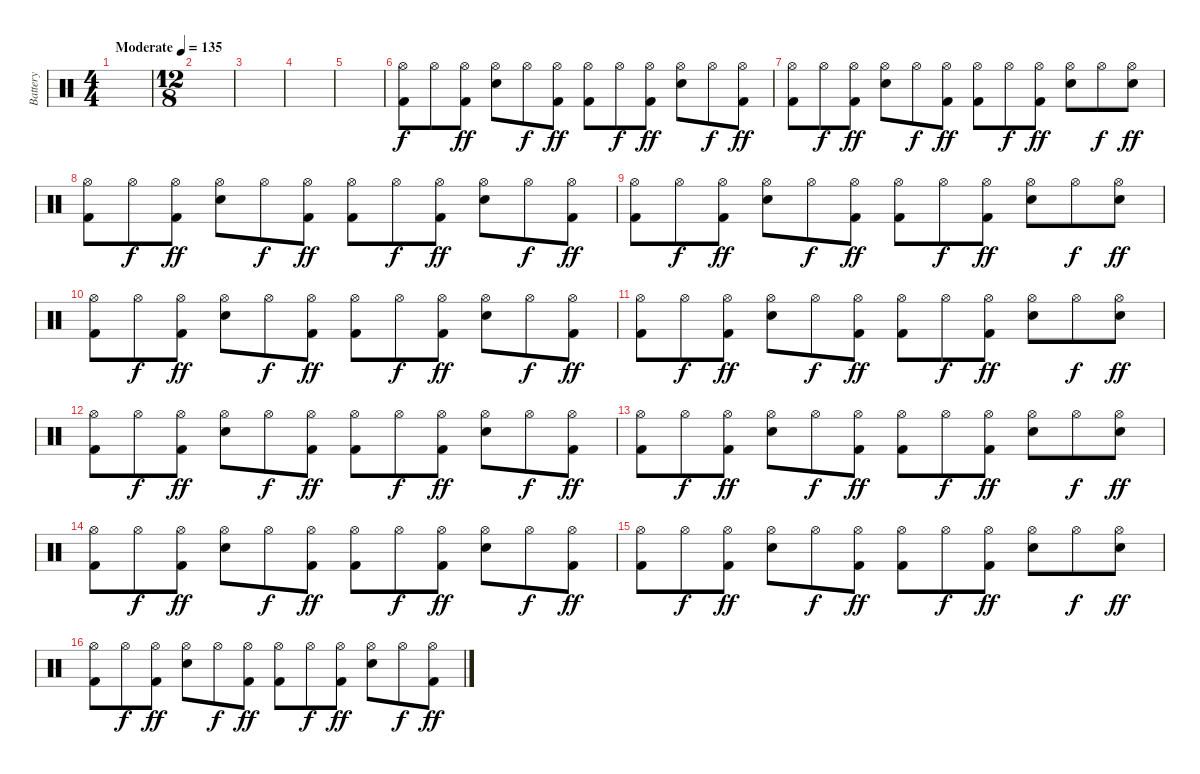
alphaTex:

\track ("Battery" "Battery") {instrument percussion}
\staff {score}
\articulation defaults
\ts (4 4)
\tempo (135 "Moderate")
\clef neutral
\ks c
|
\ts (12 8)
|
|
|
|
("Hi-Hat (open)" "Kick (hit) 2").8 "Hi-Hat (open)".8{dy f} ("Hi-Hat (open)" "Kick (hit) 2").8{dy ff} ("Hi-Hat (open)" "Snare (hit) 2").8 "Hi-Hat (open)".8{dy f} ("Hi-Hat (open)" "Kick (hit) 2").8{dy ff} ("Hi-Hat (open)" "Kick (hit) 2").8 "Hi-Hat (open)".8{dy f} ("Hi-Hat (open)" "Kick (hit) 2").8{dy ff} ("Hi-Hat (open)" "Snare (hit) 2").8 "Hi-Hat (open)".8{dy f} ("Hi-Hat (open)" "Kick (hit) 2").8{dy ff} |
("Hi-Hat (open)" "Kick (hit) 2").8 "Hi-Hat (open)".8{dy f} ("Hi-Hat (open)" "Kick (hit) 2").8{dy ff} ("Hi-Hat (open)" "Snare (hit) 2").8 "Hi-Hat (open)".8{dy f} ("Hi-Hat (open)" "Kick (hit) 2").8{dy ff} ("Hi-Hat (open)" "Kick (hit) 2").8 "Hi-Hat (open)".8{dy f} ("Hi-Hat (open)" "Kick (hit) 2").8{dy ff} ("Hi-Hat (open)" "Snare (hit) 2").8 "Hi-Hat (open)".8{dy f} ("Hi-Hat (open)" "Snare (hit) 2").8{dy ff} |
("Hi-Hat (open)" "Kick (hit) 2").8 "Hi-Hat (open)".8{dy f} ("Hi-Hat (open)" "Kick (hit) 2").8{dy ff} ("Hi-Hat (open)" "Snare (hit) 2").8 "Hi-Hat (open)".8{dy f} ("Hi-Hat (open)" "Kick (hit) 2").8{dy ff} ("Hi-Hat (open)" "Kick (hit) 2").8 "Hi-Hat (open)".8{dy f} ("Hi-Hat (open)" "Kick (hit) 2").8{dy ff} ("Hi-Hat (open)" "Snare (hit) 2").8 "Hi-Hat (open)".8{dy f} ("Hi-Hat (open)" "Kick (hit) 2").8{dy ff} |
("Hi-Hat (open)" "Kick (hit) 2").8 "Hi-Hat (open)".8{dy f} ("Hi-Hat (open)" "Kick (hit) 2").8{dy ff} ("Hi-Hat (open)" "Snare (hit) 2").8 "Hi-Hat (open)".8{dy f} ("Hi-Hat (open)" "Kick (hit) 2").8{dy ff} ("Hi-Hat (open)" "Kick (hit) 2").8 "Hi-Hat (open)".8{dy f} ("Hi-Hat (open)" "Kick (hit) 2").8{dy ff} ("Hi-Hat (open)" "Snare (hit) 2").8 "Hi-Hat (open)".8{dy f} ("Hi-Hat (open)" "Snare (hit) 2").8{dy ff} |
("Hi-Hat (open)" "Kick (hit) 2").8 "Hi-Hat (open)".8{dy f} ("Hi-Hat (open)" "Kick (hit) 2").8{dy ff} ("Hi-Hat (open)" "Snare (hit) 2").8 "Hi-Hat (open)".8{dy f} ("Hi-Hat (open)" "Kick (hit) 2").8{dy ff} ("Hi-Hat (open)" "Kick (hit) 2").8 "Hi-Hat (open)".8{dy f} ("Hi-Hat (open)" "Kick (hit) 2").8{dy ff} ("Hi-Hat (open)" "Snare (hit) 2").8 "Hi-Hat (open)".8{dy f} ("Hi-Hat (open)" "Kick (hit) 2").8{dy ff} |
("Hi-Hat (open)" "Kick (hit) 2").8 "Hi-Hat (open)".8{dy f} ("Hi-Hat (open)" "Kick (hit) 2").8{dy ff} ("Hi-Hat (open)" "Snare (hit) 2").8 "Hi-Hat (open)".8{dy f} ("Hi-Hat (open)" "Kick (hit) 2").8{dy ff} ("Hi-Hat (open)" "Kick (hit) 2").8 "Hi-Hat (open)".8{dy f} ("Hi-Hat (open)" "Kick (hit) 2").8{dy ff} ("Hi-Hat (open)" "Snare (hit) 2").8 "Hi-Hat (open)".8{dy f} ("Hi-Hat (open)" "Snare (hit) 2").8{dy ff} |
("Hi-Hat (open)" "Kick (hit) 2").8 "Hi-Hat (open)".8{dy f} ("Hi-Hat (open)" "Kick (hit) 2").8{dy ff} ("Hi-Hat (open)" "Snare (hit) 2").8 "Hi-Hat (open)".8{dy f} ("Hi-Hat (open)" "Kick (hit) 2").8{dy ff} ("Hi-Hat (open)" "Kick (hit) 2").8 "Hi-Hat (open)".8{dy f} ("Hi-Hat (open)" "Kick (hit) 2").8{dy ff} ("Hi-Hat (open)" "Snare (hit) 2").8 "Hi-Hat (open)".8{dy f} ("Hi-Hat (open)" "Kick (hit) 2").8{dy ff} |
("Hi-Hat (open)" "Kick (hit) 2").8 "Hi-Hat (open)".8{dy f} ("Hi-Hat (open)" "Kick (hit) 2").8{dy ff} ("Hi-Hat (open)" "Snare (hit) 2").8 "Hi-Hat (open)".8{dy f} ("Hi-Hat (open)" "Kick (hit) 2").8{dy ff} ("Hi-Hat (open)" "Kick (hit) 2").8 "Hi-Hat (open)".8{dy f} ("Hi-Hat (open)" "Kick (hit) 2").8{dy ff} ("Hi-Hat (open)" "Snare (hit) 2").8 "Hi-Hat (open)".8{dy f} ("Hi-Hat (open)" "Snare (hit) 2").8{dy ff} |
("Hi-Hat (open)" "Kick (hit) 2").8 "Hi-Hat (open)".8{dy f} ("Hi-Hat (open)" "Kick (hit) 2").8{dy ff} ("Hi-Hat (open)" "Snare (hit) 2").8 "Hi-Hat (open)".8{dy f} ("Hi-Hat (open)" "Kick (hit) 2").8{dy ff} ("Hi-Hat (open)" "Kick (hit) 2").8 "Hi-Hat (open)".8{dy f} ("Hi-Hat (open)" "Kick (hit) 2").8{dy ff} ("Hi-Hat (open)" "Snare (hit) 2").8 "Hi-Hat (open)".8{dy f} ("Hi-Hat (open)" "Kick (hit) 2").8{dy ff} |
("Hi-Hat (open)" "Kick (hit) 2").8 "Hi-Hat (open)".8{dy f} ("Hi-Hat (open)" "Kick (hit) 2").8{dy ff} ("Hi-Hat (open)" "Snare (hit) 2").8 "Hi-Hat (open)".8{dy f} ("Hi-Hat (open)" "Kick (hit) 2").8{dy ff} ("Hi-Hat (open)" "Kick (hit) 2").8 "Hi-Hat (open)".8{dy f} ("Hi-Hat (open)" "Kick (hit) 2").8{dy ff} ("Hi-Hat (open)" "Snare (hit) 2").8 "Hi-Hat (open)".8{dy f} ("Hi-Hat (open)" "Snare (hit) 2").8{dy ff} |
("Hi-Hat (open)" "Kick (hit) 2").8 "Hi-Hat (open)".8{dy f} ("Hi-Hat (open)" "Kick (hit) 2").8{dy ff} ("Hi-Hat (open)" "Snare (hit) 2").8 "Hi-Hat (open)".8{dy f} ("Hi-Hat (open)" "Kick (hit) 2").8{dy ff} ("Hi-Hat (open)" "Kick (hit) 2").8 "Hi-Hat (open)".8{dy f} ("Hi-Hat (open)" "Kick (hit) 2").8{dy ff} ("Hi-Hat (open)" "Snare (hit) 2").8 "Hi-Hat (open)".8{dy f} ("Hi-Hat (open)" "Kick (hit) 2").8{dy ff}
